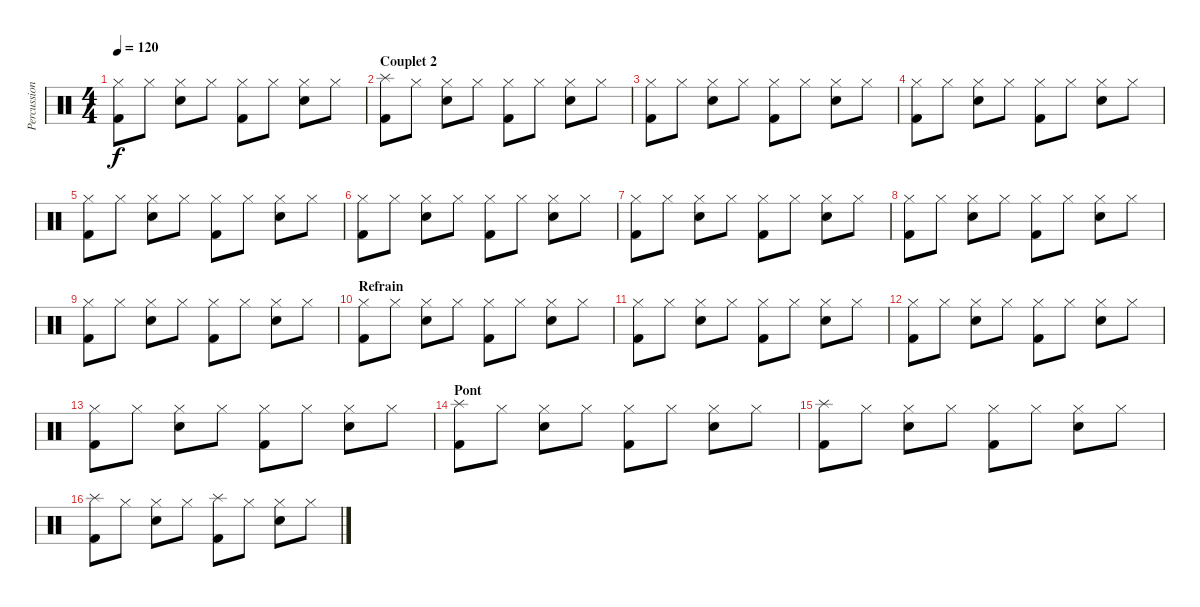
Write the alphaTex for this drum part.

\track ("Percussions" "Percussion") {instrument percussion}
\staff {score}
\articulation defaults
\ts (4 4)
\tempo 120
\clef neutral
\ks c
("Kick (hit) 2" "Hi-Hat (closed)").8{dy f} "Hi-Hat (closed)".8 ("Electric Snare (hit)" "Hi-Hat (closed)").8 "Hi-Hat (closed)".8 ("Kick (hit) 2" "Hi-Hat (closed)").8 "Hi-Hat (closed)".8 ("Electric Snare (hit)" "Hi-Hat (closed)").8 "Hi-Hat (closed)".8 |
\section ("" "Couplet 2")
("Kick (hit) 2" "Splash (hit)").8 "Hi-Hat (closed)".8 ("Electric Snare (hit)" "Hi-Hat (closed)").8 "Hi-Hat (closed)".8 ("Kick (hit) 2" "Hi-Hat (closed)").8 "Hi-Hat (closed)".8 ("Electric Snare (hit)" "Hi-Hat (closed)").8 "Hi-Hat (closed)".8 |
("Kick (hit) 2" "Hi-Hat (closed)").8 "Hi-Hat (closed)".8 ("Electric Snare (hit)" "Hi-Hat (closed)").8 "Hi-Hat (closed)".8 ("Kick (hit) 2" "Hi-Hat (closed)").8 "Hi-Hat (closed)".8 ("Electric Snare (hit)" "Hi-Hat (closed)").8 "Hi-Hat (closed)".8 |
("Kick (hit) 2" "Hi-Hat (closed)").8 "Hi-Hat (closed)".8 ("Electric Snare (hit)" "Hi-Hat (closed)").8 "Hi-Hat (closed)".8 ("Kick (hit) 2" "Hi-Hat (closed)").8 "Hi-Hat (closed)".8 ("Electric Snare (hit)" "Hi-Hat (closed)").8 "Hi-Hat (closed)".8 |
("Kick (hit) 2" "Hi-Hat (closed)").8 "Hi-Hat (closed)".8 ("Electric Snare (hit)" "Hi-Hat (closed)").8 "Hi-Hat (closed)".8 ("Kick (hit) 2" "Hi-Hat (closed)").8 "Hi-Hat (closed)".8 ("Electric Snare (hit)" "Hi-Hat (closed)").8 "Hi-Hat (closed)".8 |
("Kick (hit) 2" "Hi-Hat (closed)").8 "Hi-Hat (closed)".8 ("Electric Snare (hit)" "Hi-Hat (closed)").8 "Hi-Hat (closed)".8 ("Kick (hit) 2" "Hi-Hat (closed)").8 "Hi-Hat (closed)".8 ("Electric Snare (hit)" "Hi-Hat (closed)").8 "Hi-Hat (closed)".8 |
("Kick (hit) 2" "Hi-Hat (closed)").8 "Hi-Hat (closed)".8 ("Electric Snare (hit)" "Hi-Hat (closed)").8 "Hi-Hat (closed)".8 ("Kick (hit) 2" "Hi-Hat (closed)").8 "Hi-Hat (closed)".8 ("Electric Snare (hit)" "Hi-Hat (closed)").8 "Hi-Hat (closed)".8 |
("Kick (hit) 2" "Hi-Hat (closed)").8 "Hi-Hat (closed)".8 ("Electric Snare (hit)" "Hi-Hat (closed)").8 "Hi-Hat (closed)".8 ("Kick (hit) 2" "Hi-Hat (closed)").8 "Hi-Hat (closed)".8 ("Electric Snare (hit)" "Hi-Hat (closed)").8 "Hi-Hat (closed)".8 |
("Kick (hit) 2" "Hi-Hat (closed)").8 "Hi-Hat (closed)".8 ("Electric Snare (hit)" "Hi-Hat (closed)").8 "Hi-Hat (closed)".8 ("Kick (hit) 2" "Hi-Hat (closed)").8 "Hi-Hat (closed)".8 ("Electric Snare (hit)" "Hi-Hat (closed)").8 "Hi-Hat (closed)".8 |
\section ("" "Refrain")
("Kick (hit) 2" "Hi-Hat (closed)").8 "Hi-Hat (closed)".8 ("Electric Snare (hit)" "Hi-Hat (closed)").8 "Hi-Hat (closed)".8 ("Kick (hit) 2" "Hi-Hat (closed)").8 "Hi-Hat (closed)".8 ("Electric Snare (hit)" "Hi-Hat (closed)").8 "Hi-Hat (closed)".8 |
("Kick (hit) 2" "Hi-Hat (closed)").8 "Hi-Hat (closed)".8 ("Electric Snare (hit)" "Hi-Hat (closed)").8 "Hi-Hat (closed)".8 ("Kick (hit) 2" "Hi-Hat (closed)").8 "Hi-Hat (closed)".8 ("Electric Snare (hit)" "Hi-Hat (closed)").8 "Hi-Hat (closed)".8 |
("Kick (hit) 2" "Hi-Hat (closed)").8 "Hi-Hat (closed)".8 ("Electric Snare (hit)" "Hi-Hat (closed)").8 "Hi-Hat (closed)".8 ("Kick (hit) 2" "Hi-Hat (closed)").8 "Hi-Hat (closed)".8 ("Electric Snare (hit)" "Hi-Hat (closed)").8 "Hi-Hat (closed)".8 |
("Kick (hit) 2" "Hi-Hat (closed)").8 "Hi-Hat (closed)".8 ("Electric Snare (hit)" "Hi-Hat (closed)").8 "Hi-Hat (closed)".8 ("Kick (hit) 2" "Hi-Hat (closed)").8 "Hi-Hat (closed)".8 ("Electric Snare (hit)" "Hi-Hat (closed)").8 "Hi-Hat (closed)".8 |
\section ("" "Pont")
("Kick (hit) 2" "Splash (hit)").8 "Hi-Hat (closed)".8 ("Electric Snare (hit)" "Hi-Hat (closed)").8 "Hi-Hat (closed)".8 ("Kick (hit) 2" "Hi-Hat (closed)").8 "Hi-Hat (closed)".8 ("Electric Snare (hit)" "Hi-Hat (closed)").8 "Hi-Hat (closed)".8 |
("Kick (hit) 2" "Splash (hit)").8 "Hi-Hat (closed)".8 ("Electric Snare (hit)" "Hi-Hat (closed)").8 "Hi-Hat (closed)".8 ("Kick (hit) 2" "Hi-Hat (closed)").8 "Hi-Hat (closed)".8 ("Electric Snare (hit)" "Hi-Hat (closed)").8 "Hi-Hat (closed)".8 |
("Kick (hit) 2" "Splash (hit)").8 "Hi-Hat (closed)".8 ("Electric Snare (hit)" "Hi-Hat (closed)").8 "Hi-Hat (closed)".8 ("Kick (hit) 2" "Splash (hit)").8 "Hi-Hat (closed)".8 ("Electric Snare (hit)" "Hi-Hat (closed)").8 "Hi-Hat (closed)".8
